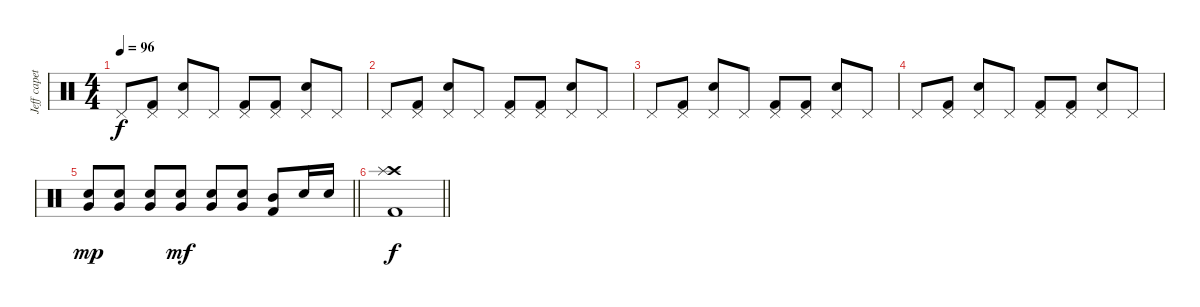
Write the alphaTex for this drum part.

\track ("Jeff capetally" "Jeff capet") {instrument percussion}
\staff {score}
\articulation defaults
\ts (4 4)
\tempo 96
\clef neutral
\ks c "Pedal Hi-Hat (hit)".8{dy f}
("Pedal Hi-Hat (hit)" "Kick (hit) 2").8 ("Pedal Hi-Hat (hit)" "Snare (hit) 2").8 "Pedal Hi-Hat (hit)".8 ("Pedal Hi-Hat (hit)" "Kick (hit) 2").8 ("Pedal Hi-Hat (hit)" "Kick (hit) 2").8 ("Pedal Hi-Hat (hit)" "Snare (hit) 2").8 "Pedal Hi-Hat (hit)".8 |
"Pedal Hi-Hat (hit)".8 ("Pedal Hi-Hat (hit)" "Kick (hit) 2").8 ("Pedal Hi-Hat (hit)" "Snare (hit) 2").8 "Pedal Hi-Hat (hit)".8 ("Pedal Hi-Hat (hit)" "Kick (hit) 2").8 ("Pedal Hi-Hat (hit)" "Kick (hit) 2").8 ("Pedal Hi-Hat (hit)" "Snare (hit) 2").8 "Pedal Hi-Hat (hit)".8 |
"Pedal Hi-Hat (hit)".8 ("Pedal Hi-Hat (hit)" "Kick (hit) 2").8 ("Pedal Hi-Hat (hit)" "Snare (hit) 2").8 "Pedal Hi-Hat (hit)".8 ("Pedal Hi-Hat (hit)" "Kick (hit) 2").8 ("Pedal Hi-Hat (hit)" "Kick (hit) 2").8 ("Pedal Hi-Hat (hit)" "Snare (hit) 2").8 "Pedal Hi-Hat (hit)".8 |
"Pedal Hi-Hat (hit)".8 ("Pedal Hi-Hat (hit)" "Kick (hit) 2").8 ("Pedal Hi-Hat (hit)" "Snare (hit) 2").8 "Pedal Hi-Hat (hit)".8 ("Pedal Hi-Hat (hit)" "Kick (hit) 2").8 ("Pedal Hi-Hat (hit)" "Kick (hit) 2").8 ("Pedal Hi-Hat (hit)" "Snare (hit) 2").8 "Pedal Hi-Hat (hit)".8 |
\barLineRight lightlight
("Snare (hit) 2" "Very Low Tom (hit)").8{dy mp} ("Snare (hit) 2" "Very Low Tom (hit)").8 ("Snare (hit) 2" "Very Low Tom (hit)").8 ("Snare (hit) 2" "Very Low Tom (hit)").8{dy mf} ("Snare (hit) 2" "Very Low Tom (hit)").8 ("Snare (hit) 2" "Very Low Tom (hit)").8 ("Mid Tom (hit)" "Kick (hit) 2").8 "Snare (hit) 2".16 "Snare (hit) 2".16 |
\barLineRight lightlight
("Crash high (hit)" "Splash (hit)" "Kick (hit) 2").1{dy f}
